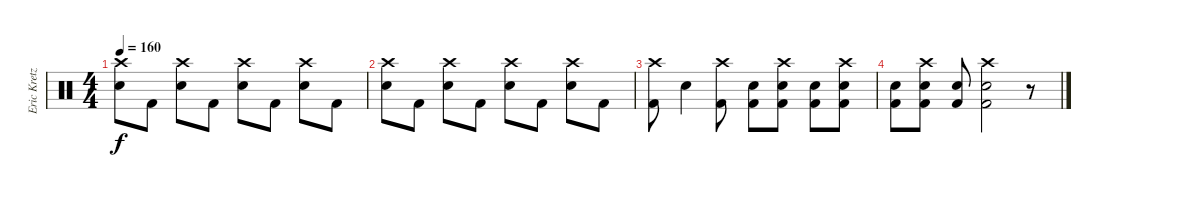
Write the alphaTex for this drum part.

\track ("Eric Kretz (Drums)" "Eric Kretz") {instrument percussion}
\staff {score}
\articulation defaults
\ts (4 4)
\tempo 160
\clef neutral
\ks c
("Crash high (hit)" "Snare (hit) 2").8{dy f} "Kick (hit) 2".8 ("Crash high (hit)" "Snare (hit) 2").8 "Kick (hit) 2".8 ("Crash high (hit)" "Snare (hit) 2").8 "Kick (hit) 2".8 ("Crash high (hit)" "Snare (hit) 2").8 "Kick (hit) 2".8 |
("Crash high (hit)" "Snare (hit) 2").8 "Kick (hit) 2".8 ("Crash high (hit)" "Snare (hit) 2").8 "Kick (hit) 2".8 ("Crash high (hit)" "Snare (hit) 2").8 "Kick (hit) 2".8 ("Crash high (hit)" "Snare (hit) 2").8 "Kick (hit) 2".8 |
("Crash high (hit)" "Kick (hit) 2").8 "Snare (hit) 2".4 ("Crash high (hit)" "Kick (hit) 2").8 ("Snare (hit) 2" "Kick (hit) 2").8 ("Crash high (hit)" "Snare (hit) 2" "Kick (hit) 2").8 ("Snare (hit) 2" "Kick (hit) 2").8 ("Crash high (hit)" "Snare (hit) 2" "Kick (hit) 2").8 |
("Snare (hit) 2" "Kick (hit) 2").8 ("Crash high (hit)" "Snare (hit) 2" "Kick (hit) 2").8 ("Snare (hit) 2" "Kick (hit) 2").8 ("Crash high (hit)" "Snare (hit) 2" "Kick (hit) 2").2 r.8
